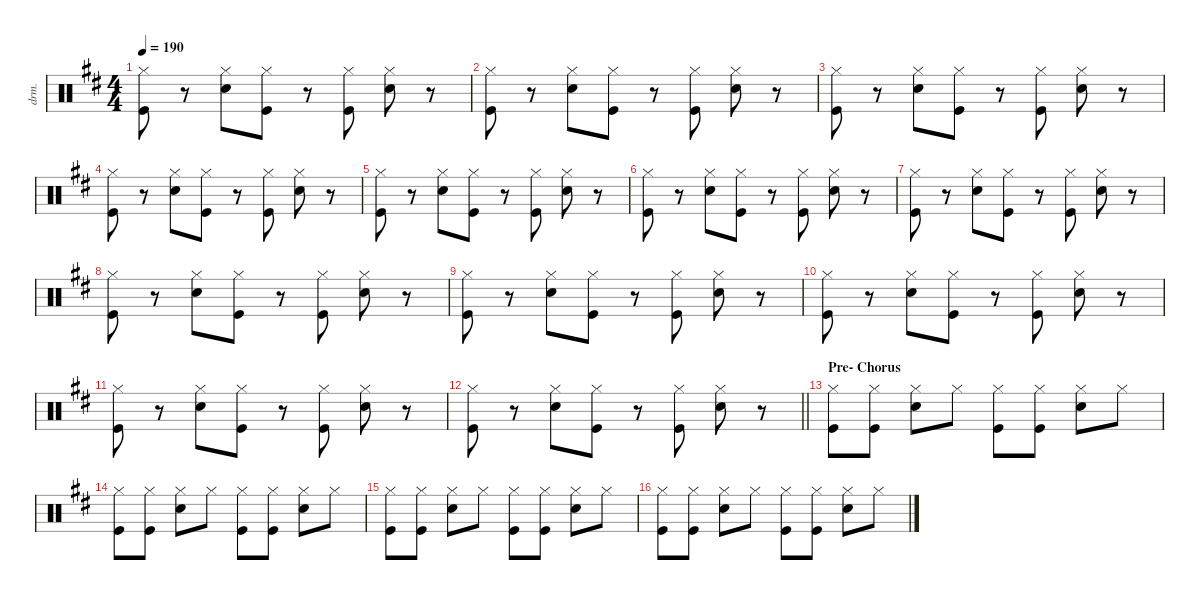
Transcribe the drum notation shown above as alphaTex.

\defaultSystemsLayout 4
\hideDynamics
\bracketExtendMode nobrackets
\otherSystemsTrackNameOrientation horizontal
\track ("Damon Wilson" "drm.") {instrument percussion}
\staff {score}
\articulation defaults
\ts (4 4)
\tempo 190
\clef neutral
\ks d
("Hi-Hat (closed)"{acc forcenatural} "Kick (hit)"{acc forcenatural}).8{dy f beam Down} r.8{beam Down} ("Hi-Hat (closed)"{acc forcenatural} "Snare (hit) 2"{acc forcenatural}).8{beam Down} ("Hi-Hat (closed)"{acc forcenatural} "Kick (hit)"{acc forcenatural}).8{beam Down} r.8{beam Down} ("Hi-Hat (closed)"{acc forcenatural} "Kick (hit)"{acc forcenatural}).8{beam Down} ("Hi-Hat (closed)"{acc forcenatural} "Snare (hit) 2"{acc forcenatural}).8{beam Down} r.8{beam Down} |
("Hi-Hat (closed)"{acc forcenatural} "Kick (hit)"{acc forcenatural}).8{beam Down} r.8{beam Down} ("Hi-Hat (closed)"{acc forcenatural} "Snare (hit) 2"{acc forcenatural}).8{beam Down} ("Hi-Hat (closed)"{acc forcenatural} "Kick (hit)"{acc forcenatural}).8{beam Down} r.8{beam Down} ("Hi-Hat (closed)"{acc forcenatural} "Kick (hit)"{acc forcenatural}).8{beam Down} ("Hi-Hat (closed)"{acc forcenatural} "Snare (hit) 2"{acc forcenatural}).8{beam Down} r.8{beam Down} |
("Hi-Hat (closed)"{acc forcenatural} "Kick (hit)"{acc forcenatural}).8{beam Down} r.8{beam Down} ("Hi-Hat (closed)"{acc forcenatural} "Snare (hit) 2"{acc forcenatural}).8{beam Down} ("Hi-Hat (closed)"{acc forcenatural} "Kick (hit)"{acc forcenatural}).8{beam Down} r.8{beam Down} ("Hi-Hat (closed)"{acc forcenatural} "Kick (hit)"{acc forcenatural}).8{beam Down} ("Hi-Hat (closed)"{acc forcenatural} "Snare (hit) 2"{acc forcenatural}).8{beam Down} r.8{beam Down} |
("Hi-Hat (closed)"{acc forcenatural} "Kick (hit)"{acc forcenatural}).8{beam Down} r.8{beam Down} ("Hi-Hat (closed)"{acc forcenatural} "Snare (hit) 2"{acc forcenatural}).8{beam Down} ("Hi-Hat (closed)"{acc forcenatural} "Kick (hit)"{acc forcenatural}).8{beam Down} r.8{beam Down} ("Hi-Hat (closed)"{acc forcenatural} "Kick (hit)"{acc forcenatural}).8{beam Down} ("Hi-Hat (closed)"{acc forcenatural} "Snare (hit) 2"{acc forcenatural}).8{beam Down} r.8{beam Down} |
("Hi-Hat (closed)"{acc forcenatural} "Kick (hit)"{acc forcenatural}).8{beam Down} r.8{beam Down} ("Hi-Hat (closed)"{acc forcenatural} "Snare (hit) 2"{acc forcenatural}).8{beam Down} ("Hi-Hat (closed)"{acc forcenatural} "Kick (hit)"{acc forcenatural}).8{beam Down} r.8{beam Down} ("Hi-Hat (closed)"{acc forcenatural} "Kick (hit)"{acc forcenatural}).8{beam Down} ("Hi-Hat (closed)"{acc forcenatural} "Snare (hit) 2"{acc forcenatural}).8{beam Down} r.8{beam Down} |
("Hi-Hat (closed)"{acc forcenatural} "Kick (hit)"{acc forcenatural}).8{beam Down} r.8{beam Down} ("Hi-Hat (closed)"{acc forcenatural} "Snare (hit) 2"{acc forcenatural}).8{beam Down} ("Hi-Hat (closed)"{acc forcenatural} "Kick (hit)"{acc forcenatural}).8{beam Down} r.8{beam Down} ("Hi-Hat (closed)"{acc forcenatural} "Kick (hit)"{acc forcenatural}).8{beam Down} ("Hi-Hat (closed)"{acc forcenatural} "Snare (hit) 2"{acc forcenatural}).8{beam Down} r.8{beam Down} |
("Hi-Hat (closed)"{acc forcenatural} "Kick (hit)"{acc forcenatural}).8{beam Down} r.8{beam Down} ("Hi-Hat (closed)"{acc forcenatural} "Snare (hit) 2"{acc forcenatural}).8{beam Down} ("Hi-Hat (closed)"{acc forcenatural} "Kick (hit)"{acc forcenatural}).8{beam Down} r.8{beam Down} ("Hi-Hat (closed)"{acc forcenatural} "Kick (hit)"{acc forcenatural}).8{beam Down} ("Hi-Hat (closed)"{acc forcenatural} "Snare (hit) 2"{acc forcenatural}).8{beam Down} r.8{beam Down} |
("Hi-Hat (closed)"{acc forcenatural} "Kick (hit)"{acc forcenatural}).8{beam Down} r.8{beam Down} ("Hi-Hat (closed)"{acc forcenatural} "Snare (hit) 2"{acc forcenatural}).8{beam Down} ("Hi-Hat (closed)"{acc forcenatural} "Kick (hit)"{acc forcenatural}).8{beam Down} r.8{beam Down} ("Hi-Hat (closed)"{acc forcenatural} "Kick (hit)"{acc forcenatural}).8{beam Down} ("Hi-Hat (closed)"{acc forcenatural} "Snare (hit) 2"{acc forcenatural}).8{beam Down} r.8{beam Down} |
("Hi-Hat (closed)"{acc forcenatural} "Kick (hit)"{acc forcenatural}).8{beam Down} r.8{beam Down} ("Hi-Hat (closed)"{acc forcenatural} "Snare (hit) 2"{acc forcenatural}).8{beam Down} ("Hi-Hat (closed)"{acc forcenatural} "Kick (hit)"{acc forcenatural}).8{beam Down} r.8{beam Down} ("Hi-Hat (closed)"{acc forcenatural} "Kick (hit)"{acc forcenatural}).8{beam Down} ("Hi-Hat (closed)"{acc forcenatural} "Snare (hit) 2"{acc forcenatural}).8{beam Down} r.8{beam Down} |
("Hi-Hat (closed)"{acc forcenatural} "Kick (hit)"{acc forcenatural}).8{beam Down} r.8{beam Down} ("Hi-Hat (closed)"{acc forcenatural} "Snare (hit) 2"{acc forcenatural}).8{beam Down} ("Hi-Hat (closed)"{acc forcenatural} "Kick (hit)"{acc forcenatural}).8{beam Down} r.8{beam Down} ("Hi-Hat (closed)"{acc forcenatural} "Kick (hit)"{acc forcenatural}).8{beam Down} ("Hi-Hat (closed)"{acc forcenatural} "Snare (hit) 2"{acc forcenatural}).8{beam Down} r.8{beam Down} |
("Hi-Hat (closed)"{acc forcenatural} "Kick (hit)"{acc forcenatural}).8{beam Down} r.8{beam Down} ("Hi-Hat (closed)"{acc forcenatural} "Snare (hit) 2"{acc forcenatural}).8{beam Down} ("Hi-Hat (closed)"{acc forcenatural} "Kick (hit)"{acc forcenatural}).8{beam Down} r.8{beam Down} ("Hi-Hat (closed)"{acc forcenatural} "Kick (hit)"{acc forcenatural}).8{beam Down} ("Hi-Hat (closed)"{acc forcenatural} "Snare (hit) 2"{acc forcenatural}).8{beam Down} r.8{beam Down} |
\barLineRight lightlight
("Hi-Hat (closed)"{acc forcenatural} "Kick (hit)"{acc forcenatural}).8{beam Down} r.8{beam Down} ("Hi-Hat (closed)"{acc forcenatural} "Snare (hit) 2"{acc forcenatural}).8{beam Down} ("Hi-Hat (closed)"{acc forcenatural} "Kick (hit)"{acc forcenatural}).8{beam Down} r.8{beam Down} ("Hi-Hat (closed)"{acc forcenatural} "Kick (hit)"{acc forcenatural}).8{beam Down} ("Hi-Hat (closed)"{acc forcenatural} "Snare (hit) 2"{acc forcenatural}).8{beam Down} r.8{beam Down} |
\section ("" "Pre- Chorus")
("Hi-Hat (closed)"{acc forcenatural} "Kick (hit)"{acc forcenatural}).8{beam Down} ("Hi-Hat (closed)"{acc forcenatural} "Kick (hit)"{acc forcenatural}).8{beam Down} ("Hi-Hat (closed)"{acc forcenatural} "Snare (hit) 2"{acc forcenatural}).8{beam Down} "Hi-Hat (closed)"{acc forcenatural}.8{beam Down} ("Hi-Hat (closed)"{acc forcenatural} "Kick (hit)"{acc forcenatural}).8{beam Down} ("Hi-Hat (closed)"{acc forcenatural} "Kick (hit)"{acc forcenatural}).8{beam Down} ("Hi-Hat (closed)"{acc forcenatural} "Snare (hit) 2"{acc forcenatural}).8{beam Down} "Hi-Hat (closed)"{acc forcenatural}.8{beam Down} |
("Hi-Hat (closed)"{acc forcenatural} "Kick (hit)"{acc forcenatural}).8{beam Down} ("Hi-Hat (closed)"{acc forcenatural} "Kick (hit)"{acc forcenatural}).8{beam Down} ("Hi-Hat (closed)"{acc forcenatural} "Snare (hit) 2"{acc forcenatural}).8{beam Down} "Hi-Hat (closed)"{acc forcenatural}.8{beam Down} ("Hi-Hat (closed)"{acc forcenatural} "Kick (hit)"{acc forcenatural}).8{beam Down} ("Hi-Hat (closed)"{acc forcenatural} "Kick (hit)"{acc forcenatural}).8{beam Down} ("Hi-Hat (closed)"{acc forcenatural} "Snare (hit) 2"{acc forcenatural}).8{beam Down} "Hi-Hat (closed)"{acc forcenatural}.8{beam Down} |
("Hi-Hat (closed)"{acc forcenatural} "Kick (hit)"{acc forcenatural}).8{beam Down} ("Hi-Hat (closed)"{acc forcenatural} "Kick (hit)"{acc forcenatural}).8{beam Down} ("Hi-Hat (closed)"{acc forcenatural} "Snare (hit) 2"{acc forcenatural}).8{beam Down} "Hi-Hat (closed)"{acc forcenatural}.8{beam Down} ("Hi-Hat (closed)"{acc forcenatural} "Kick (hit)"{acc forcenatural}).8{beam Down} ("Hi-Hat (closed)"{acc forcenatural} "Kick (hit)"{acc forcenatural}).8{beam Down} ("Hi-Hat (closed)"{acc forcenatural} "Snare (hit) 2"{acc forcenatural}).8{beam Down} "Hi-Hat (closed)"{acc forcenatural}.8{beam Down} |
("Hi-Hat (closed)"{acc forcenatural} "Kick (hit)"{acc forcenatural}).8{beam Down} ("Hi-Hat (closed)"{acc forcenatural} "Kick (hit)"{acc forcenatural}).8{beam Down} ("Hi-Hat (closed)"{acc forcenatural} "Snare (hit) 2"{acc forcenatural}).8{beam Down} "Hi-Hat (closed)"{acc forcenatural}.8{beam Down} ("Hi-Hat (closed)"{acc forcenatural} "Kick (hit)"{acc forcenatural}).8{beam Down} ("Hi-Hat (closed)"{acc forcenatural} "Kick (hit)"{acc forcenatural}).8{beam Down} ("Hi-Hat (closed)"{acc forcenatural} "Snare (hit) 2"{acc forcenatural}).8{beam Down} "Hi-Hat (closed)"{acc forcenatural}.8{beam Down}
